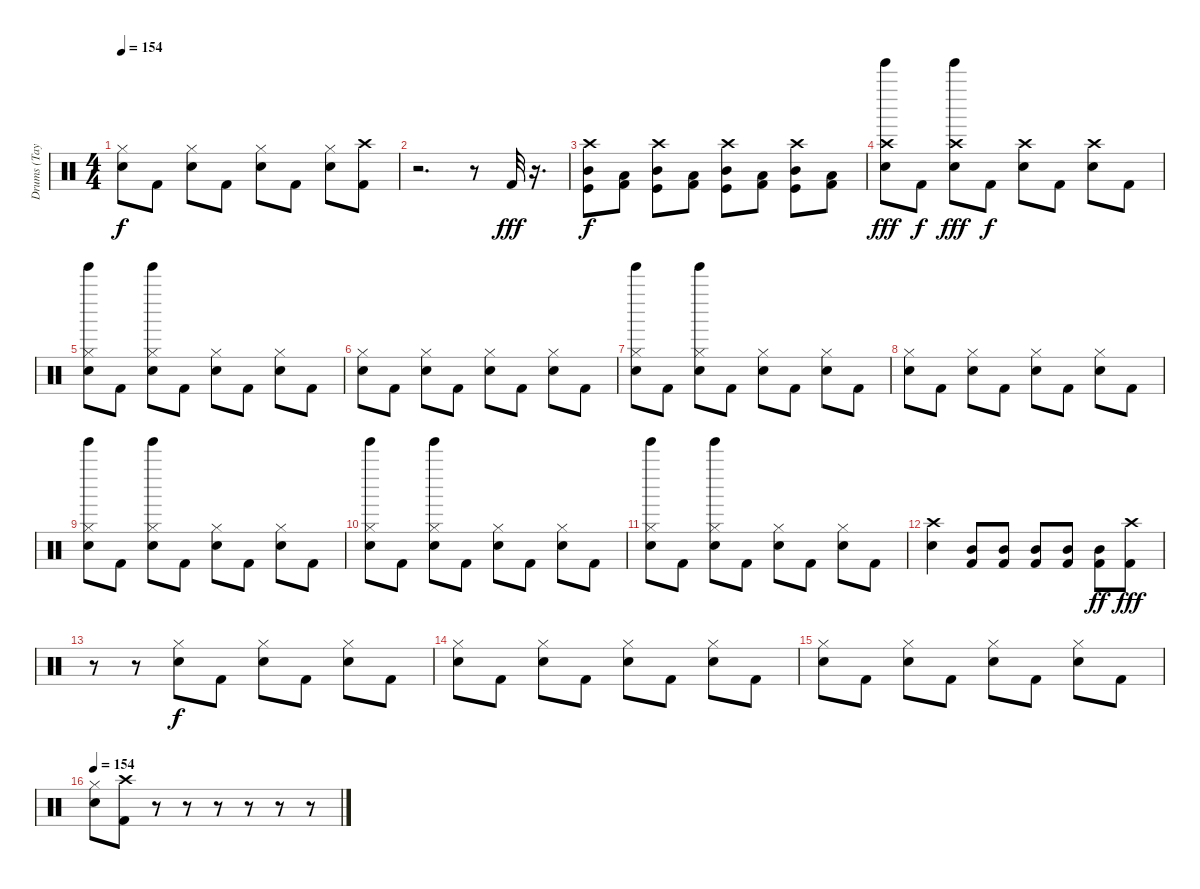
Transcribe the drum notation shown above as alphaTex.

\track ("Drums (Taylor)" "Drums (Tay") {instrument percussion}
\staff {score}
\articulation defaults
\ts (4 4)
\tempo 154
\clef neutral
\ks c
("Hi-Hat (closed)" "Electric Snare (hit)").8{dy f} "Kick (hit) 2".8 ("Hi-Hat (closed)" "Electric Snare (hit)").8 "Kick (hit) 2".8 ("Hi-Hat (closed)" "Electric Snare (hit)").8 "Kick (hit) 2".8 ("Hi-Hat (closed)" "Electric Snare (hit)").8 ("Crash high (hit)" "Kick (hit) 2").8 |
r.2{d} r.8 "Kick (hit) 2".32{dy fff} r.16{d} |
("Crash high (hit)" "Kick (hit)" "Mid Tom (hit)").8{dy f} ("Kick (hit) 2" "Low Tom (hit)").8 ("Crash high (hit)" "Kick (hit)" "Mid Tom (hit)").8 ("Kick (hit) 2" "Low Tom (hit)").8 ("Crash high (hit)" "Kick (hit)" "Mid Tom (hit)").8 ("Kick (hit) 2" "Low Tom (hit)").8 ("Crash high (hit)" "Kick (hit)" "Mid Tom (hit)").8 ("Kick (hit) 2" "Low Tom (hit)").8 |
("Crash high (hit)" "Electric Snare (hit)" "Tinkle Bell (hit)").8{dy fff} "Kick (hit) 2".8{dy f} ("Crash high (hit)" "Electric Snare (hit)" "Tinkle Bell (hit)").8{dy fff} "Kick (hit) 2".8{dy f} ("Crash high (hit)" "Electric Snare (hit)").8 "Kick (hit) 2".8 ("Crash high (hit)" "Electric Snare (hit)").8 "Kick (hit) 2".8 |
("Hi-Hat (closed)" "Electric Snare (hit)" "Tinkle Bell (hit)").8 "Kick (hit) 2".8 ("Hi-Hat (closed)" "Electric Snare (hit)" "Tinkle Bell (hit)").8 "Kick (hit) 2".8 ("Hi-Hat (closed)" "Electric Snare (hit)").8 "Kick (hit) 2".8 ("Hi-Hat (closed)" "Electric Snare (hit)").8 "Kick (hit) 2".8 |
("Hi-Hat (closed)" "Electric Snare (hit)").8 "Kick (hit) 2".8 ("Hi-Hat (closed)" "Electric Snare (hit)").8 "Kick (hit) 2".8 ("Hi-Hat (closed)" "Electric Snare (hit)").8 "Kick (hit) 2".8 ("Hi-Hat (closed)" "Electric Snare (hit)").8 "Kick (hit) 2".8 |
("Hi-Hat (closed)" "Electric Snare (hit)" "Tinkle Bell (hit)").8 "Kick (hit) 2".8 ("Hi-Hat (closed)" "Electric Snare (hit)" "Tinkle Bell (hit)").8 "Kick (hit) 2".8 ("Hi-Hat (closed)" "Electric Snare (hit)").8 "Kick (hit) 2".8 ("Hi-Hat (closed)" "Electric Snare (hit)").8 "Kick (hit) 2".8 |
("Hi-Hat (closed)" "Electric Snare (hit)").8 "Kick (hit) 2".8 ("Hi-Hat (closed)" "Electric Snare (hit)").8 "Kick (hit) 2".8 ("Hi-Hat (closed)" "Electric Snare (hit)").8 "Kick (hit) 2".8 ("Hi-Hat (closed)" "Electric Snare (hit)").8 "Kick (hit) 2".8 |
("Hi-Hat (closed)" "Electric Snare (hit)" "Tinkle Bell (hit)").8 "Kick (hit) 2".8 ("Hi-Hat (closed)" "Electric Snare (hit)" "Tinkle Bell (hit)").8 "Kick (hit) 2".8 ("Hi-Hat (closed)" "Electric Snare (hit)").8 "Kick (hit) 2".8 ("Hi-Hat (closed)" "Electric Snare (hit)").8 "Kick (hit) 2".8 |
("Hi-Hat (closed)" "Electric Snare (hit)" "Tinkle Bell (hit)").8 "Kick (hit) 2".8 ("Hi-Hat (closed)" "Electric Snare (hit)" "Tinkle Bell (hit)").8 "Kick (hit) 2".8 ("Hi-Hat (closed)" "Electric Snare (hit)").8 "Kick (hit) 2".8 ("Hi-Hat (closed)" "Electric Snare (hit)").8 "Kick (hit) 2".8 |
("Hi-Hat (closed)" "Electric Snare (hit)" "Tinkle Bell (hit)").8 "Kick (hit) 2".8 ("Hi-Hat (closed)" "Electric Snare (hit)" "Tinkle Bell (hit)").8 "Kick (hit) 2".8 ("Hi-Hat (closed)" "Electric Snare (hit)").8 "Kick (hit) 2".8 ("Hi-Hat (closed)" "Electric Snare (hit)").8 "Kick (hit) 2".8 |
("Crash high (hit)" "Electric Snare (hit)").4 ("Mid Tom (hit)" "Kick (hit) 2").8 ("Mid Tom (hit)" "Kick (hit) 2").8 ("Mid Tom (hit)" "Kick (hit) 2").8 ("Mid Tom (hit)" "Kick (hit) 2").8 ("Mid Tom (hit)" "Kick (hit) 2").8{dy ff} ("Kick (hit) 2" "Crash high (hit)").8{dy fff} |
r.8 r.8 ("Hi-Hat (closed)" "Electric Snare (hit)").8{dy f} "Kick (hit) 2".8 ("Hi-Hat (closed)" "Electric Snare (hit)").8 "Kick (hit) 2".8 ("Hi-Hat (closed)" "Electric Snare (hit)").8 "Kick (hit) 2".8 |
("Hi-Hat (closed)" "Electric Snare (hit)").8 "Kick (hit) 2".8 ("Hi-Hat (closed)" "Electric Snare (hit)").8 "Kick (hit) 2".8 ("Hi-Hat (closed)" "Electric Snare (hit)").8 "Kick (hit) 2".8 ("Hi-Hat (closed)" "Electric Snare (hit)").8 "Kick (hit) 2".8 |
("Hi-Hat (closed)" "Electric Snare (hit)").8 "Kick (hit) 2".8 ("Hi-Hat (closed)" "Electric Snare (hit)").8 "Kick (hit) 2".8 ("Hi-Hat (closed)" "Electric Snare (hit)").8 "Kick (hit) 2".8 ("Hi-Hat (closed)" "Electric Snare (hit)").8 "Kick (hit) 2".8 |
\tempo 154
("Hi-Hat (closed)" "Electric Snare (hit)").8 ("Crash high (hit)" "Kick (hit) 2").8 r.8{volume 0} r.8 r.8 r.8 r.8 r.8
